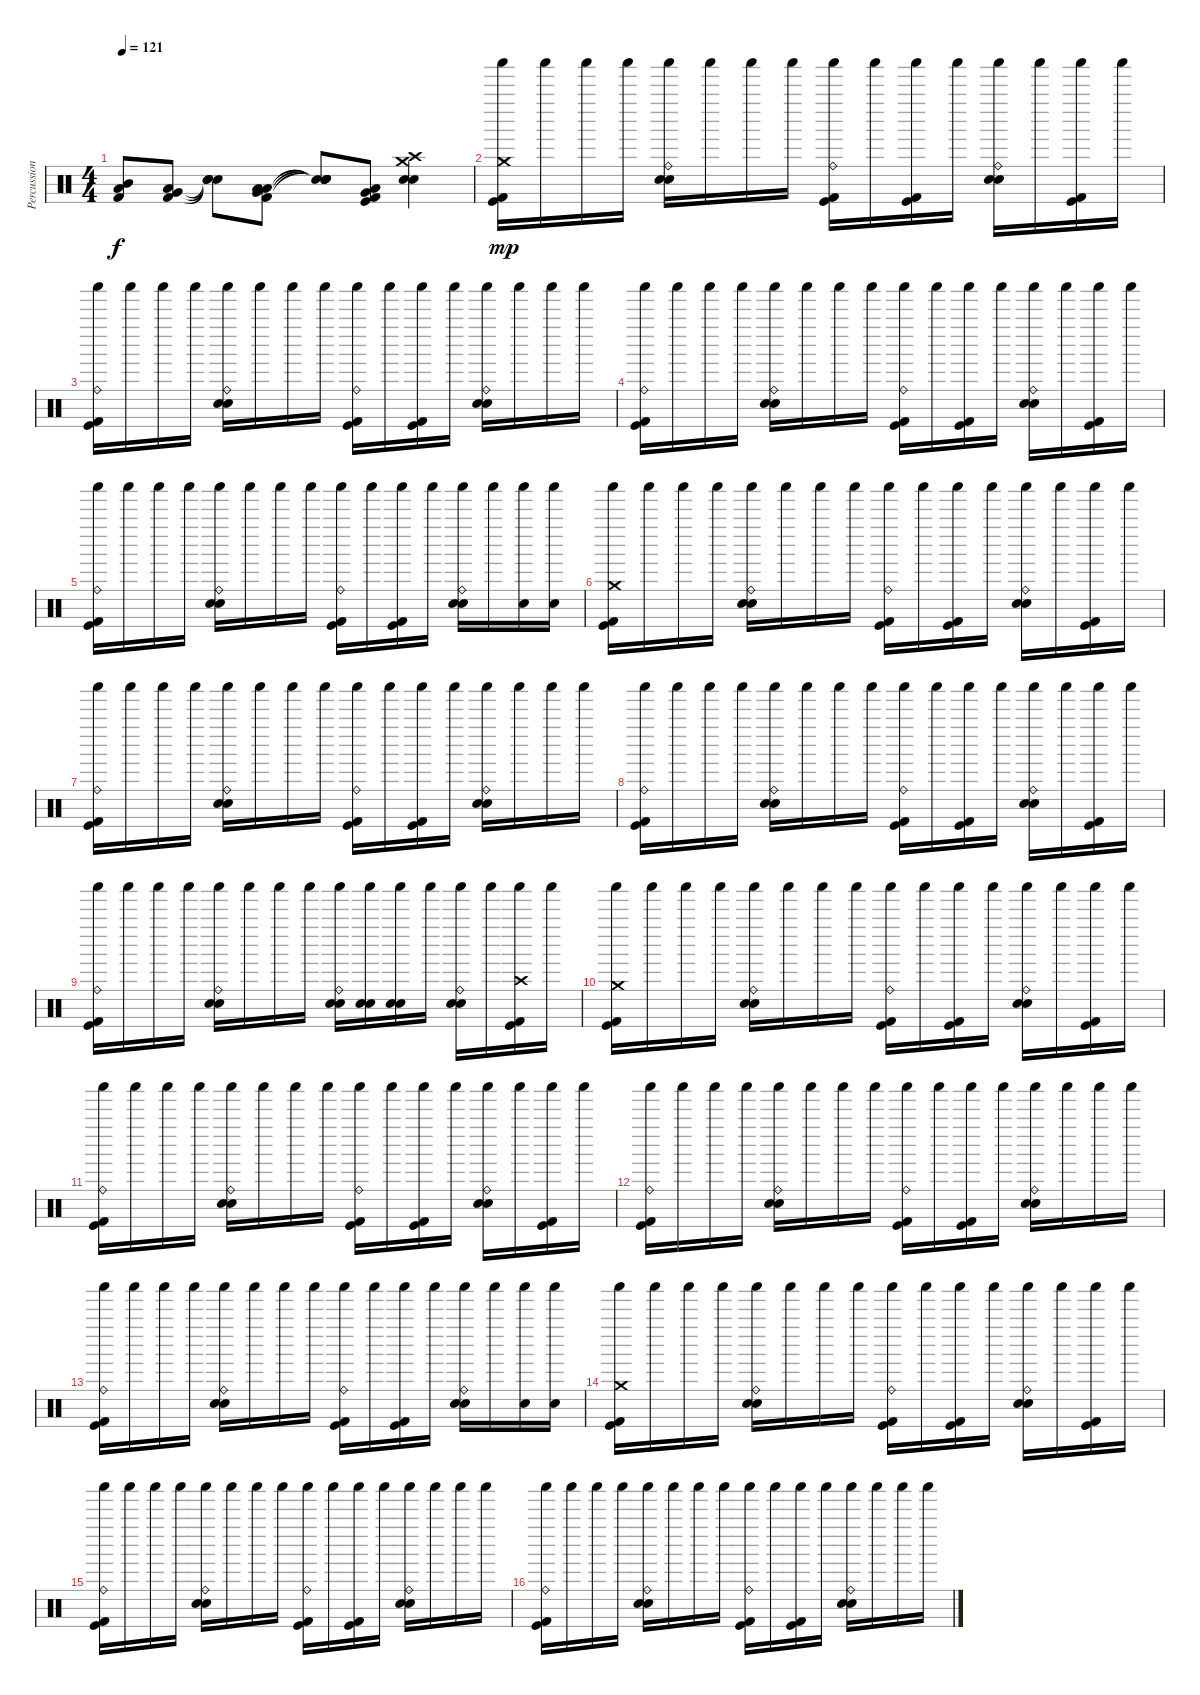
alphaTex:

\track ("Percussion" "Percussion") {instrument percussion}
\staff {score}
\articulation defaults
\ts (4 4)
\tempo 121
\clef neutral
\ks c
("Mid Tom (hit)" "Low Tom (hit)" "Kick (hit) 2").8{dy f} ("Low Tom (hit)" "Very Low Tom (hit)" "Kick (hit) 2").8 ("Snare (hit)"{t} "Snare (hit)"{t} "Snare (hit)"{t}).8 ("Low Tom (hit)" "Very Low Tom (hit)" "Low Floor Tom (hit)" "Kick (hit) 2").8 ("Snare (hit)"{t} "Snare (hit)"{t} "Snare (hit)"{t} "Snare (hit)"{t}).8 ("Very Low Tom (hit)" "Low Floor Tom (hit)" "Kick (hit)" "Kick (hit) 2").8 ("Crash medium (hit)" "Crash high (hit)" "Electric Snare (hit)" "Metronome (bell)").4 |
("Crash medium (hit)" "Kick (hit)" "Kick (hit) 2" "Shaker (hit)").16{dy mp} "Shaker (hit)".16 "Shaker (hit)".16 "Shaker (hit)".16 ("Ride (bell)" "Electric Snare (hit)" "Metronome (bell)" "Shaker (hit)").16 "Shaker (hit)".16 "Shaker (hit)".16 "Shaker (hit)".16 ("Ride (bell)" "Kick (hit)" "Kick (hit) 2" "Shaker (hit)").16 "Shaker (hit)".16 ("Kick (hit)" "Kick (hit) 2" "Shaker (hit)").16 "Shaker (hit)".16 ("Ride (bell)" "Electric Snare (hit)" "Metronome (bell)" "Shaker (hit)").16 "Shaker (hit)".16 ("Kick (hit)" "Kick (hit) 2" "Shaker (hit)").16 "Shaker (hit)".16 |
("Ride (bell)" "Kick (hit)" "Kick (hit) 2" "Shaker (hit)").16 "Shaker (hit)".16 "Shaker (hit)".16 "Shaker (hit)".16 ("Ride (bell)" "Electric Snare (hit)" "Metronome (bell)" "Shaker (hit)").16 "Shaker (hit)".16 "Shaker (hit)".16 "Shaker (hit)".16 ("Ride (bell)" "Kick (hit)" "Kick (hit) 2" "Shaker (hit)").16 "Shaker (hit)".16 ("Kick (hit)" "Kick (hit) 2" "Shaker (hit)").16 "Shaker (hit)".16 ("Ride (bell)" "Electric Snare (hit)" "Metronome (bell)" "Shaker (hit)").16 "Shaker (hit)".16 "Shaker (hit)".16 "Shaker (hit)".16 |
("Ride (bell)" "Kick (hit)" "Kick (hit) 2" "Shaker (hit)").16 "Shaker (hit)".16 "Shaker (hit)".16 "Shaker (hit)".16 ("Ride (bell)" "Electric Snare (hit)" "Metronome (bell)" "Shaker (hit)").16 "Shaker (hit)".16 "Shaker (hit)".16 "Shaker (hit)".16 ("Ride (bell)" "Kick (hit)" "Kick (hit) 2" "Shaker (hit)").16 "Shaker (hit)".16 ("Kick (hit)" "Kick (hit) 2" "Shaker (hit)").16 "Shaker (hit)".16 ("Ride (bell)" "Electric Snare (hit)" "Metronome (bell)" "Shaker (hit)").16 "Shaker (hit)".16 ("Kick (hit)" "Kick (hit) 2" "Shaker (hit)").16 "Shaker (hit)".16 |
("Ride (bell)" "Kick (hit)" "Kick (hit) 2" "Shaker (hit)").16 "Shaker (hit)".16 "Shaker (hit)".16 "Shaker (hit)".16 ("Ride (bell)" "Electric Snare (hit)" "Metronome (bell)" "Shaker (hit)").16 "Shaker (hit)".16 "Shaker (hit)".16 "Shaker (hit)".16 ("Ride (bell)" "Kick (hit)" "Kick (hit) 2" "Shaker (hit)").16 "Shaker (hit)".16 ("Kick (hit)" "Kick (hit) 2" "Shaker (hit)").16 "Shaker (hit)".16 ("Ride (bell)" "Electric Snare (hit)" "Metronome (bell)" "Shaker (hit)").16 "Shaker (hit)".16 ("Metronome (bell)" "Shaker (hit)").16 ("Metronome (bell)" "Shaker (hit)").16 |
("Crash medium (hit)" "Kick (hit)" "Kick (hit) 2" "Shaker (hit)").16 "Shaker (hit)".16 "Shaker (hit)".16 "Shaker (hit)".16 ("Ride (bell)" "Electric Snare (hit)" "Metronome (bell)" "Shaker (hit)").16 "Shaker (hit)".16 "Shaker (hit)".16 "Shaker (hit)".16 ("Ride (bell)" "Kick (hit)" "Kick (hit) 2" "Shaker (hit)").16 "Shaker (hit)".16 ("Kick (hit)" "Kick (hit) 2" "Shaker (hit)").16 "Shaker (hit)".16 ("Ride (bell)" "Electric Snare (hit)" "Metronome (bell)" "Shaker (hit)").16 "Shaker (hit)".16 ("Kick (hit)" "Kick (hit) 2" "Shaker (hit)").16 "Shaker (hit)".16 |
("Ride (bell)" "Kick (hit)" "Kick (hit) 2" "Shaker (hit)").16 "Shaker (hit)".16 "Shaker (hit)".16 "Shaker (hit)".16 ("Ride (bell)" "Electric Snare (hit)" "Metronome (bell)" "Shaker (hit)").16 "Shaker (hit)".16 "Shaker (hit)".16 "Shaker (hit)".16 ("Ride (bell)" "Kick (hit)" "Kick (hit) 2" "Shaker (hit)").16 "Shaker (hit)".16 ("Kick (hit)" "Kick (hit) 2" "Shaker (hit)").16 "Shaker (hit)".16 ("Ride (bell)" "Electric Snare (hit)" "Metronome (bell)" "Shaker (hit)").16 "Shaker (hit)".16 "Shaker (hit)".16 "Shaker (hit)".16 |
("Ride (bell)" "Kick (hit)" "Kick (hit) 2" "Shaker (hit)").16 "Shaker (hit)".16 "Shaker (hit)".16 "Shaker (hit)".16 ("Ride (bell)" "Electric Snare (hit)" "Metronome (bell)" "Shaker (hit)").16 "Shaker (hit)".16 "Shaker (hit)".16 "Shaker (hit)".16 ("Ride (bell)" "Kick (hit)" "Kick (hit) 2" "Shaker (hit)").16 "Shaker (hit)".16 ("Kick (hit)" "Kick (hit) 2" "Shaker (hit)").16 "Shaker (hit)".16 ("Ride (bell)" "Electric Snare (hit)" "Metronome (bell)" "Shaker (hit)").16 "Shaker (hit)".16 ("Kick (hit)" "Kick (hit) 2" "Shaker (hit)").16 "Shaker (hit)".16 |
("Ride (bell)" "Kick (hit)" "Kick (hit) 2" "Shaker (hit)").16 "Shaker (hit)".16 "Shaker (hit)".16 "Shaker (hit)".16 ("Ride (bell)" "Electric Snare (hit)" "Metronome (bell)" "Shaker (hit)").16 "Shaker (hit)".16 "Shaker (hit)".16 "Shaker (hit)".16 ("Ride (bell)" "Electric Snare (hit)" "Metronome (bell)" "Shaker (hit)").16 ("Electric Snare (hit)" "Metronome (bell)" "Shaker (hit)").16 ("Electric Snare (hit)" "Metronome (bell)" "Shaker (hit)").16 "Shaker (hit)".16 ("Ride (bell)" "Electric Snare (hit)" "Metronome (bell)" "Shaker (hit)").16 "Shaker (hit)".16 ("Crash high (hit)" "Kick (hit)" "Kick (hit) 2" "Shaker (hit)").16 "Shaker (hit)".16 |
("Crash medium (hit)" "Kick (hit)" "Kick (hit) 2" "Shaker (hit)").16 "Shaker (hit)".16 "Shaker (hit)".16 "Shaker (hit)".16 ("Ride (bell)" "Electric Snare (hit)" "Metronome (bell)" "Shaker (hit)").16 "Shaker (hit)".16 "Shaker (hit)".16 "Shaker (hit)".16 ("Ride (bell)" "Kick (hit)" "Kick (hit) 2" "Shaker (hit)").16 "Shaker (hit)".16 ("Kick (hit)" "Kick (hit) 2" "Shaker (hit)").16 "Shaker (hit)".16 ("Ride (bell)" "Electric Snare (hit)" "Metronome (bell)" "Shaker (hit)").16 "Shaker (hit)".16 ("Kick (hit)" "Kick (hit) 2" "Shaker (hit)").16 "Shaker (hit)".16 |
("Ride (bell)" "Kick (hit)" "Kick (hit) 2" "Shaker (hit)").16 "Shaker (hit)".16 "Shaker (hit)".16 "Shaker (hit)".16 ("Ride (bell)" "Electric Snare (hit)" "Metronome (bell)" "Shaker (hit)").16 "Shaker (hit)".16 "Shaker (hit)".16 "Shaker (hit)".16 ("Ride (bell)" "Kick (hit)" "Kick (hit) 2" "Shaker (hit)").16 "Shaker (hit)".16 ("Kick (hit)" "Kick (hit) 2" "Shaker (hit)").16 "Shaker (hit)".16 ("Ride (bell)" "Electric Snare (hit)" "Metronome (bell)" "Shaker (hit)").16 "Shaker (hit)".16 ("Kick (hit)" "Kick (hit) 2" "Shaker (hit)").16 "Shaker (hit)".16 |
("Ride (bell)" "Kick (hit)" "Kick (hit) 2" "Shaker (hit)").16 "Shaker (hit)".16 "Shaker (hit)".16 "Shaker (hit)".16 ("Ride (bell)" "Electric Snare (hit)" "Metronome (bell)" "Shaker (hit)").16 "Shaker (hit)".16 "Shaker (hit)".16 "Shaker (hit)".16 ("Ride (bell)" "Kick (hit)" "Kick (hit) 2" "Shaker (hit)").16 "Shaker (hit)".16 ("Kick (hit)" "Kick (hit) 2" "Shaker (hit)").16 "Shaker (hit)".16 ("Ride (bell)" "Electric Snare (hit)" "Metronome (bell)" "Shaker (hit)").16 "Shaker (hit)".16 "Shaker (hit)".16 "Shaker (hit)".16 |
("Ride (bell)" "Kick (hit)" "Kick (hit) 2" "Shaker (hit)").16 "Shaker (hit)".16 "Shaker (hit)".16 "Shaker (hit)".16 ("Ride (bell)" "Electric Snare (hit)" "Metronome (bell)" "Shaker (hit)").16 "Shaker (hit)".16 "Shaker (hit)".16 "Shaker (hit)".16 ("Ride (bell)" "Kick (hit)" "Kick (hit) 2" "Shaker (hit)").16 "Shaker (hit)".16 ("Kick (hit)" "Kick (hit) 2" "Shaker (hit)").16 "Shaker (hit)".16 ("Ride (bell)" "Electric Snare (hit)" "Metronome (bell)" "Shaker (hit)").16 "Shaker (hit)".16 ("Metronome (bell)" "Shaker (hit)").16 ("Metronome (bell)" "Shaker (hit)").16 |
("Crash medium (hit)" "Kick (hit)" "Kick (hit) 2" "Shaker (hit)").16 "Shaker (hit)".16 "Shaker (hit)".16 "Shaker (hit)".16 ("Ride (bell)" "Electric Snare (hit)" "Metronome (bell)" "Shaker (hit)").16 "Shaker (hit)".16 "Shaker (hit)".16 "Shaker (hit)".16 ("Ride (bell)" "Kick (hit)" "Kick (hit) 2" "Shaker (hit)").16 "Shaker (hit)".16 ("Kick (hit)" "Kick (hit) 2" "Shaker (hit)").16 "Shaker (hit)".16 ("Ride (bell)" "Electric Snare (hit)" "Metronome (bell)" "Shaker (hit)").16 "Shaker (hit)".16 ("Kick (hit)" "Kick (hit) 2" "Shaker (hit)").16 "Shaker (hit)".16 |
("Ride (bell)" "Kick (hit)" "Kick (hit) 2" "Shaker (hit)").16 "Shaker (hit)".16 "Shaker (hit)".16 "Shaker (hit)".16 ("Ride (bell)" "Electric Snare (hit)" "Metronome (bell)" "Shaker (hit)").16 "Shaker (hit)".16 "Shaker (hit)".16 "Shaker (hit)".16 ("Ride (bell)" "Kick (hit)" "Kick (hit) 2" "Shaker (hit)").16 "Shaker (hit)".16 ("Kick (hit)" "Kick (hit) 2" "Shaker (hit)").16 "Shaker (hit)".16 ("Ride (bell)" "Electric Snare (hit)" "Metronome (bell)" "Shaker (hit)").16 "Shaker (hit)".16 "Shaker (hit)".16 "Shaker (hit)".16 |
("Ride (bell)" "Kick (hit)" "Kick (hit) 2" "Shaker (hit)").16 "Shaker (hit)".16 "Shaker (hit)".16 "Shaker (hit)".16 ("Ride (bell)" "Electric Snare (hit)" "Metronome (bell)" "Shaker (hit)").16 "Shaker (hit)".16 "Shaker (hit)".16 "Shaker (hit)".16 ("Ride (bell)" "Kick (hit)" "Kick (hit) 2" "Shaker (hit)").16 "Shaker (hit)".16 ("Kick (hit)" "Kick (hit) 2" "Shaker (hit)").16 "Shaker (hit)".16 ("Ride (bell)" "Electric Snare (hit)" "Metronome (bell)" "Shaker (hit)").16 "Shaker (hit)".16 "Shaker (hit)".16 "Shaker (hit)".16
